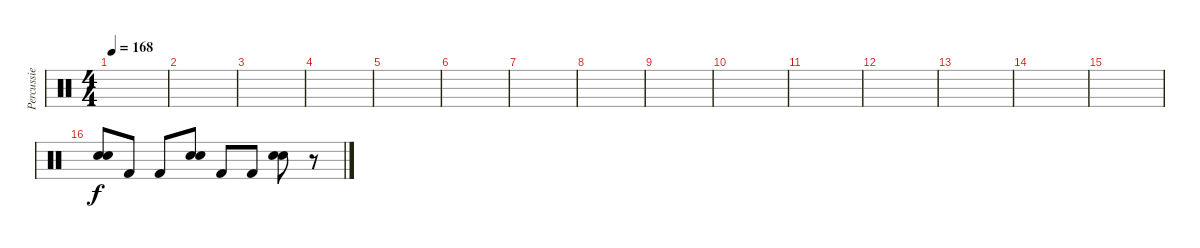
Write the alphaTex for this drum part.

\track ("Percussie" "Percussie") {instrument percussion}
\staff {score}
\articulation defaults
\ts (4 4)
\tempo 168
\clef neutral
\ks c
|
|
|
|
|
|
|
|
|
|
|
|
|
|
|
("Snare (hit) 2" "Snare (hit) 2").8{bu 480} "Kick (hit) 2".8 "Kick (hit) 2".8 ("Snare (hit) 2" "Snare (hit) 2").8{bd 480} "Kick (hit) 2".8 "Kick (hit) 2".8 ("Snare (hit) 2" "Snare (hit) 2").8{bd 480} r.8
